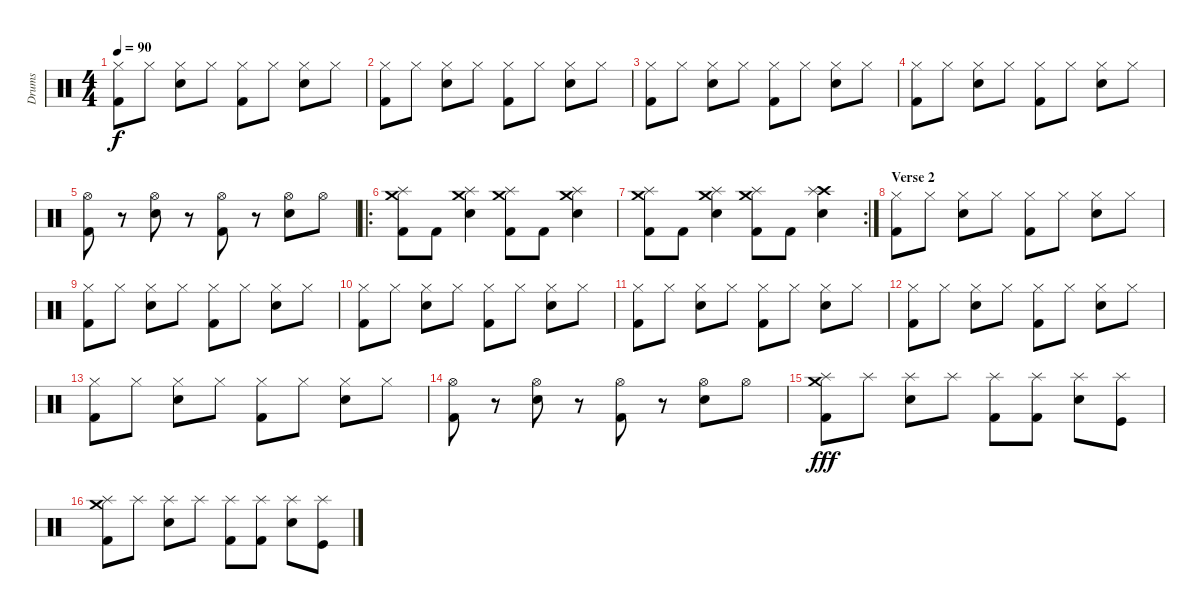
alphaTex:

\track ("Drums" "Drums") {instrument percussion}
\staff {score}
\articulation defaults
\ts (4 4)
\tempo 90
\clef neutral
\ks c
("Hi-Hat (closed)" "Kick (hit) 2").8{dy f} "Hi-Hat (closed)".8 ("Hi-Hat (closed)" "Electric Snare (hit)").8 "Hi-Hat (closed)".8 ("Hi-Hat (closed)" "Kick (hit) 2").8 "Hi-Hat (closed)".8 ("Hi-Hat (closed)" "Electric Snare (hit)").8 "Hi-Hat (closed)".8 |
("Hi-Hat (closed)" "Kick (hit) 2").8 "Hi-Hat (closed)".8 ("Hi-Hat (closed)" "Electric Snare (hit)").8 "Hi-Hat (closed)".8 ("Hi-Hat (closed)" "Kick (hit) 2").8 "Hi-Hat (closed)".8 ("Hi-Hat (closed)" "Electric Snare (hit)").8 "Hi-Hat (closed)".8 |
("Hi-Hat (closed)" "Kick (hit) 2").8 "Hi-Hat (closed)".8 ("Hi-Hat (closed)" "Electric Snare (hit)").8 "Hi-Hat (closed)".8 ("Hi-Hat (closed)" "Kick (hit) 2").8 "Hi-Hat (closed)".8 ("Hi-Hat (closed)" "Electric Snare (hit)").8 "Hi-Hat (closed)".8 |
("Hi-Hat (closed)" "Kick (hit) 2").8 "Hi-Hat (closed)".8 ("Hi-Hat (closed)" "Electric Snare (hit)").8 "Hi-Hat (closed)".8 ("Hi-Hat (closed)" "Kick (hit) 2").8 "Hi-Hat (closed)".8 ("Hi-Hat (closed)" "Electric Snare (hit)").8 "Hi-Hat (closed)".8 |
("Hi-Hat (open)" "Kick (hit) 2").8 r.8 ("Hi-Hat (open)" "Electric Snare (hit)").8 r.8 ("Hi-Hat (open)" "Kick (hit) 2").8 r.8 ("Hi-Hat (open)" "Electric Snare (hit)").8 "Hi-Hat (open)".8 |
\ro
("Crash medium (hit)" "Kick (hit) 2" "Splash (hit)").8 "Kick (hit) 2".8 ("Crash medium (hit)" "Electric Snare (hit)" "Splash (hit)").4 ("Crash medium (hit)" "Kick (hit) 2" "Splash (hit)").8 "Kick (hit) 2".8 ("Crash medium (hit)" "Electric Snare (hit)" "Splash (hit)").4 |
\rc 2
("Crash medium (hit)" "Kick (hit) 2" "Splash (hit)").8 "Kick (hit) 2".8 ("Crash medium (hit)" "Electric Snare (hit)" "Splash (hit)").4 ("Crash medium (hit)" "Kick (hit) 2" "Splash (hit)").8 "Kick (hit) 2".8 ("Crash high (hit)" "Electric Snare (hit)" "Splash (hit)").4 |
\section ("" "Verse 2")
("Hi-Hat (closed)" "Kick (hit) 2").8 "Hi-Hat (closed)".8 ("Hi-Hat (closed)" "Electric Snare (hit)").8 "Hi-Hat (closed)".8 ("Hi-Hat (closed)" "Kick (hit) 2").8 "Hi-Hat (closed)".8 ("Hi-Hat (closed)" "Electric Snare (hit)").8 "Hi-Hat (closed)".8 |
("Hi-Hat (closed)" "Kick (hit) 2").8 "Hi-Hat (closed)".8 ("Hi-Hat (closed)" "Electric Snare (hit)").8 "Hi-Hat (closed)".8 ("Hi-Hat (closed)" "Kick (hit) 2").8 "Hi-Hat (closed)".8 ("Hi-Hat (closed)" "Electric Snare (hit)").8 "Hi-Hat (closed)".8 |
("Hi-Hat (closed)" "Kick (hit) 2").8 "Hi-Hat (closed)".8 ("Hi-Hat (closed)" "Electric Snare (hit)").8 "Hi-Hat (closed)".8 ("Hi-Hat (closed)" "Kick (hit) 2").8 "Hi-Hat (closed)".8 ("Hi-Hat (closed)" "Electric Snare (hit)").8 "Hi-Hat (closed)".8 |
("Hi-Hat (closed)" "Kick (hit) 2").8 "Hi-Hat (closed)".8 ("Hi-Hat (closed)" "Electric Snare (hit)").8 "Hi-Hat (closed)".8 ("Hi-Hat (closed)" "Kick (hit) 2").8 "Hi-Hat (closed)".8 ("Hi-Hat (closed)" "Electric Snare (hit)").8 "Hi-Hat (closed)".8 |
("Hi-Hat (closed)" "Kick (hit) 2").8 "Hi-Hat (closed)".8 ("Hi-Hat (closed)" "Electric Snare (hit)").8 "Hi-Hat (closed)".8 ("Hi-Hat (closed)" "Kick (hit) 2").8 "Hi-Hat (closed)".8 ("Hi-Hat (closed)" "Electric Snare (hit)").8 "Hi-Hat (closed)".8 |
("Hi-Hat (closed)" "Kick (hit) 2").8 "Hi-Hat (closed)".8 ("Hi-Hat (closed)" "Electric Snare (hit)").8 "Hi-Hat (closed)".8 ("Hi-Hat (closed)" "Kick (hit) 2").8 "Hi-Hat (closed)".8 ("Hi-Hat (closed)" "Electric Snare (hit)").8 "Hi-Hat (closed)".8 |
("Hi-Hat (open)" "Kick (hit) 2").8 r.8 ("Hi-Hat (open)" "Electric Snare (hit)").8 r.8 ("Hi-Hat (open)" "Kick (hit) 2").8 r.8 ("Hi-Hat (open)" "Electric Snare (hit)").8 "Hi-Hat (open)".8 |
("Splash (hit)" "Crash medium (hit)" "Kick (hit) 2").8{dy fff} "Splash (hit)".8 ("Splash (hit)" "Electric Snare (hit)").8 "Splash (hit)".8 ("Splash (hit)" "Kick (hit) 2").8 ("Splash (hit)" "Kick (hit) 2").8 ("Splash (hit)" "Electric Snare (hit)").8 ("Splash (hit)" "Kick (hit)").8 |
("Splash (hit)" "Crash medium (hit)" "Kick (hit) 2").8 "Splash (hit)".8 ("Splash (hit)" "Electric Snare (hit)").8 "Splash (hit)".8 ("Splash (hit)" "Kick (hit) 2").8 ("Splash (hit)" "Kick (hit) 2").8 ("Splash (hit)" "Electric Snare (hit)").8 ("Splash (hit)" "Kick (hit)").8
